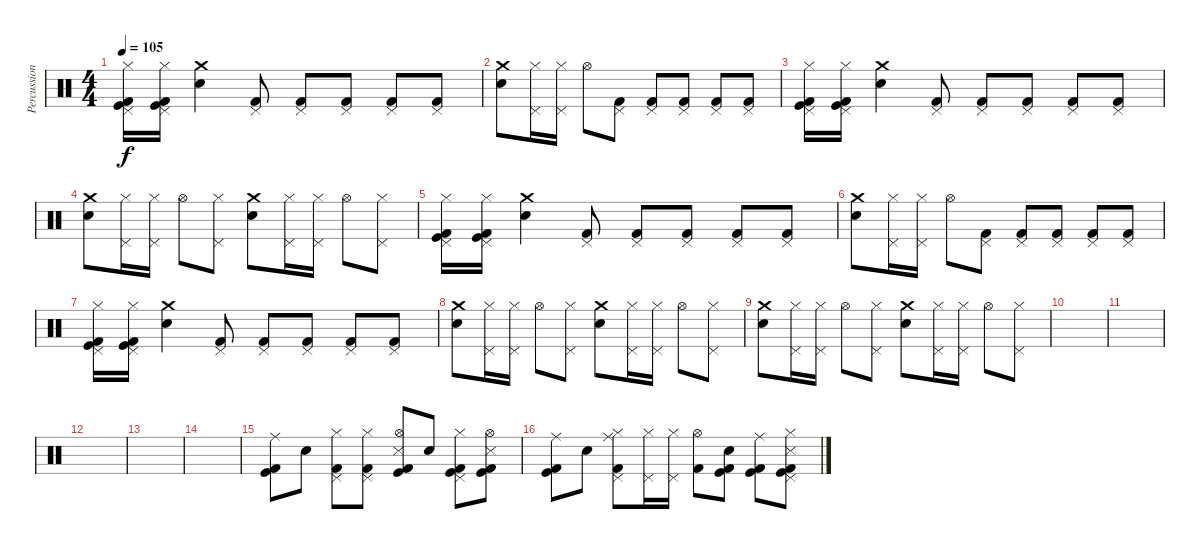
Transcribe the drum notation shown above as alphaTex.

\track ("Percussion" "Percussion") {instrument percussion}
\staff {score}
\articulation defaults
\ts (4 4)
\tempo 105
\clef neutral
\ks c
("Hi-Hat (closed)" "Pedal Hi-Hat (hit)" "Kick (hit) 2" "Kick (hit)").16{dy f} ("Pedal Hi-Hat (hit)" "Hi-Hat (closed)" "Kick (hit) 2" "Kick (hit)").16 ("Snare (hit) 2" "Crash medium (hit)").4 ("Kick (hit) 2" "Pedal Hi-Hat (hit)").8{volume 14} ("Kick (hit) 2" "Pedal Hi-Hat (hit)").8{volume 13} ("Kick (hit) 2" "Pedal Hi-Hat (hit)").8{volume 12} ("Kick (hit) 2" "Pedal Hi-Hat (hit)").8{volume 11} ("Kick (hit) 2" "Pedal Hi-Hat (hit)").8{volume 10} |
("Snare (hit) 2" "Crash medium (hit)").8{volume 16} ("Pedal Hi-Hat (hit)" "Hi-Hat (closed)").16 ("Pedal Hi-Hat (hit)" "Hi-Hat (closed)").16 "Hi-Hat (open)".8 ("Kick (hit) 2" "Pedal Hi-Hat (hit)").8{volume 14} ("Kick (hit) 2" "Pedal Hi-Hat (hit)").8{volume 13} ("Kick (hit) 2" "Pedal Hi-Hat (hit)").8{volume 12} ("Kick (hit) 2" "Pedal Hi-Hat (hit)").8{volume 11} ("Kick (hit) 2" "Pedal Hi-Hat (hit)").8{volume 10} |
("Hi-Hat (closed)" "Pedal Hi-Hat (hit)" "Kick (hit) 2" "Kick (hit)").16{volume 16} ("Pedal Hi-Hat (hit)" "Hi-Hat (closed)" "Kick (hit) 2" "Kick (hit)").16 ("Snare (hit) 2" "Crash medium (hit)").4 ("Kick (hit) 2" "Pedal Hi-Hat (hit)").8{volume 14} ("Kick (hit) 2" "Pedal Hi-Hat (hit)").8{volume 13} ("Kick (hit) 2" "Pedal Hi-Hat (hit)").8{volume 12} ("Kick (hit) 2" "Pedal Hi-Hat (hit)").8{volume 11} ("Kick (hit) 2" "Pedal Hi-Hat (hit)").8{volume 10} |
("Snare (hit) 2" "Crash medium (hit)").8{volume 16} ("Pedal Hi-Hat (hit)" "Hi-Hat (closed)").16 ("Pedal Hi-Hat (hit)" "Hi-Hat (closed)").16 "Hi-Hat (open)".8 ("Pedal Hi-Hat (hit)" "Hi-Hat (closed)").8 ("Snare (hit) 2" "Crash medium (hit)").8 ("Pedal Hi-Hat (hit)" "Hi-Hat (closed)").16 ("Pedal Hi-Hat (hit)" "Hi-Hat (closed)").16 "Hi-Hat (open)".8 ("Pedal Hi-Hat (hit)" "Hi-Hat (closed)").8 |
("Hi-Hat (closed)" "Pedal Hi-Hat (hit)" "Kick (hit) 2" "Kick (hit)").16 ("Pedal Hi-Hat (hit)" "Hi-Hat (closed)" "Kick (hit) 2" "Kick (hit)").16 ("Snare (hit) 2" "Crash medium (hit)").4 ("Kick (hit) 2" "Pedal Hi-Hat (hit)").8{volume 14} ("Kick (hit) 2" "Pedal Hi-Hat (hit)").8{volume 13} ("Kick (hit) 2" "Pedal Hi-Hat (hit)").8{volume 12} ("Kick (hit) 2" "Pedal Hi-Hat (hit)").8{volume 11} ("Kick (hit) 2" "Pedal Hi-Hat (hit)").8{volume 10} |
("Snare (hit) 2" "Crash medium (hit)").8{volume 16} ("Pedal Hi-Hat (hit)" "Hi-Hat (closed)").16 ("Pedal Hi-Hat (hit)" "Hi-Hat (closed)").16 "Hi-Hat (open)".8 ("Kick (hit) 2" "Pedal Hi-Hat (hit)").8{volume 14} ("Kick (hit) 2" "Pedal Hi-Hat (hit)").8{volume 13} ("Kick (hit) 2" "Pedal Hi-Hat (hit)").8{volume 12} ("Kick (hit) 2" "Pedal Hi-Hat (hit)").8{volume 11} ("Kick (hit) 2" "Pedal Hi-Hat (hit)").8{volume 10} |
("Hi-Hat (closed)" "Pedal Hi-Hat (hit)" "Kick (hit) 2" "Kick (hit)").16{volume 16} ("Pedal Hi-Hat (hit)" "Hi-Hat (closed)" "Kick (hit) 2" "Kick (hit)").16 ("Snare (hit) 2" "Crash medium (hit)").4 ("Kick (hit) 2" "Pedal Hi-Hat (hit)").8{volume 14} ("Kick (hit) 2" "Pedal Hi-Hat (hit)").8{volume 13} ("Kick (hit) 2" "Pedal Hi-Hat (hit)").8{volume 12} ("Kick (hit) 2" "Pedal Hi-Hat (hit)").8{volume 11} ("Kick (hit) 2" "Pedal Hi-Hat (hit)").8{volume 10} |
("Snare (hit) 2" "Crash medium (hit)").8{volume 16} ("Pedal Hi-Hat (hit)" "Hi-Hat (closed)").16 ("Pedal Hi-Hat (hit)" "Hi-Hat (closed)").16 "Hi-Hat (open)".8 ("Pedal Hi-Hat (hit)" "Hi-Hat (closed)").8 ("Snare (hit) 2" "Crash medium (hit)").8 ("Pedal Hi-Hat (hit)" "Hi-Hat (closed)").16 ("Pedal Hi-Hat (hit)" "Hi-Hat (closed)").16 "Hi-Hat (open)".8 ("Pedal Hi-Hat (hit)" "Hi-Hat (closed)").8 |
("Snare (hit) 2" "Crash medium (hit)").8{volume 16} ("Pedal Hi-Hat (hit)" "Hi-Hat (closed)").16 ("Pedal Hi-Hat (hit)" "Hi-Hat (closed)").16 "Hi-Hat (open)".8 ("Pedal Hi-Hat (hit)" "Hi-Hat (closed)").8 ("Snare (hit) 2" "Crash medium (hit)").8 ("Pedal Hi-Hat (hit)" "Hi-Hat (closed)").16 ("Pedal Hi-Hat (hit)" "Hi-Hat (closed)").16 "Hi-Hat (open)".8 ("Pedal Hi-Hat (hit)" "Hi-Hat (closed)").8 |
|
|
|
|
|
("Ride (middle)" "Kick (hit)" "Kick (hit) 2").8{volume 16} "Snare (hit) 2".8{volume 16} ("Hi-Hat (closed)" "Pedal Hi-Hat (hit)" "Kick (hit) 2").8{volume 16} ("Hi-Hat (closed)" "Pedal Hi-Hat (hit)" "Kick (hit) 2").8{volume 16} ("Snare (side stick) 3" "Kick (hit)" "Kick (hit) 2" "Hi-Hat (open)").8{volume 16} "Snare (hit) 2".8{volume 16} ("Hi-Hat (closed)" "Pedal Hi-Hat (hit)" "Kick (hit) 2" "Kick (hit)").8{volume 16} ("Hi-Hat (open)" "Kick (hit) 2" "Kick (hit)" "Snare (side stick) 3").8{volume 16} |
("Kick (hit)" "Kick (hit) 2" "Ride (middle)").8{volume 16} "Snare (hit) 2".8{volume 16} ("Kick (hit) 2" "Ride (middle)" "Pedal Hi-Hat (hit)" "Hi-Hat (closed)").8{volume 16} ("Pedal Hi-Hat (hit)" "Hi-Hat (closed)").16{volume 16} ("Pedal Hi-Hat (hit)" "Hi-Hat (closed)").16{volume 16} ("Hi-Hat (open)" "Kick (hit) 2").8{volume 16} ("Snare (hit) 2" "Kick (hit) 2" "Kick (hit)").8{volume 16} ("Kick (hit) 2" "Kick (hit)" "Ride (middle)").8{volume 16} ("Kick (hit) 2" "Kick (hit)" "Snare (side stick) 3" "Pedal Hi-Hat (hit)" "Hi-Hat (closed)").8{volume 16}
